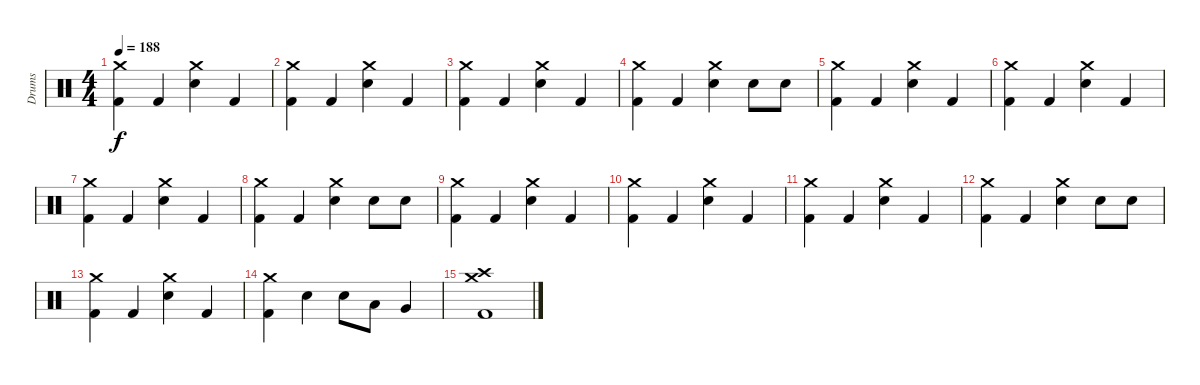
\track ("Drums" "Drums") {instrument percussion}
\staff {score}
\articulation defaults
\ts (4 4)
\tempo 188
\clef neutral
\ks c
("Crash medium (hit)" "Kick (hit) 2").4{dy f} "Kick (hit) 2".4 ("Crash medium (hit)" "Electric Snare (hit)").4 "Kick (hit) 2".4 |
("Crash medium (hit)" "Kick (hit) 2").4 "Kick (hit) 2".4 ("Crash medium (hit)" "Electric Snare (hit)").4 "Kick (hit) 2".4 |
("Crash medium (hit)" "Kick (hit) 2").4 "Kick (hit) 2".4 ("Crash medium (hit)" "Electric Snare (hit)").4 "Kick (hit) 2".4 |
("Crash medium (hit)" "Kick (hit) 2").4 "Kick (hit) 2".4 ("Crash medium (hit)" "Electric Snare (hit)").4 "Electric Snare (hit)".8 "Electric Snare (hit)".8 |
("Crash medium (hit)" "Kick (hit) 2").4 "Kick (hit) 2".4 ("Crash medium (hit)" "Electric Snare (hit)").4 "Kick (hit) 2".4 |
("Crash medium (hit)" "Kick (hit) 2").4 "Kick (hit) 2".4 ("Crash medium (hit)" "Electric Snare (hit)").4 "Kick (hit) 2".4 |
("Crash medium (hit)" "Kick (hit) 2").4 "Kick (hit) 2".4 ("Crash medium (hit)" "Electric Snare (hit)").4 "Kick (hit) 2".4 |
("Crash medium (hit)" "Kick (hit) 2").4 "Kick (hit) 2".4 ("Crash medium (hit)" "Electric Snare (hit)").4 "Electric Snare (hit)".8 "Electric Snare (hit)".8 |
("Crash medium (hit)" "Kick (hit) 2").4 "Kick (hit) 2".4 ("Crash medium (hit)" "Electric Snare (hit)").4 "Kick (hit) 2".4 |
("Crash medium (hit)" "Kick (hit) 2").4 "Kick (hit) 2".4 ("Crash medium (hit)" "Electric Snare (hit)").4 "Kick (hit) 2".4 |
("Crash medium (hit)" "Kick (hit) 2").4 "Kick (hit) 2".4 ("Crash medium (hit)" "Electric Snare (hit)").4 "Kick (hit) 2".4 |
("Crash medium (hit)" "Kick (hit) 2").4 "Kick (hit) 2".4 ("Crash medium (hit)" "Electric Snare (hit)").4 "Electric Snare (hit)".8 "Electric Snare (hit)".8 |
("Crash medium (hit)" "Kick (hit) 2").4 "Kick (hit) 2".4 ("Crash medium (hit)" "Electric Snare (hit)").4 "Kick (hit) 2".4 |
("Crash medium (hit)" "Kick (hit) 2").4 "Electric Snare (hit)".4 "Electric Snare (hit)".8 "Low Tom (hit)".8 "Very Low Tom (hit)".4 |
("Crash medium (hit)" "Crash high (hit)" "Kick (hit) 2").1
